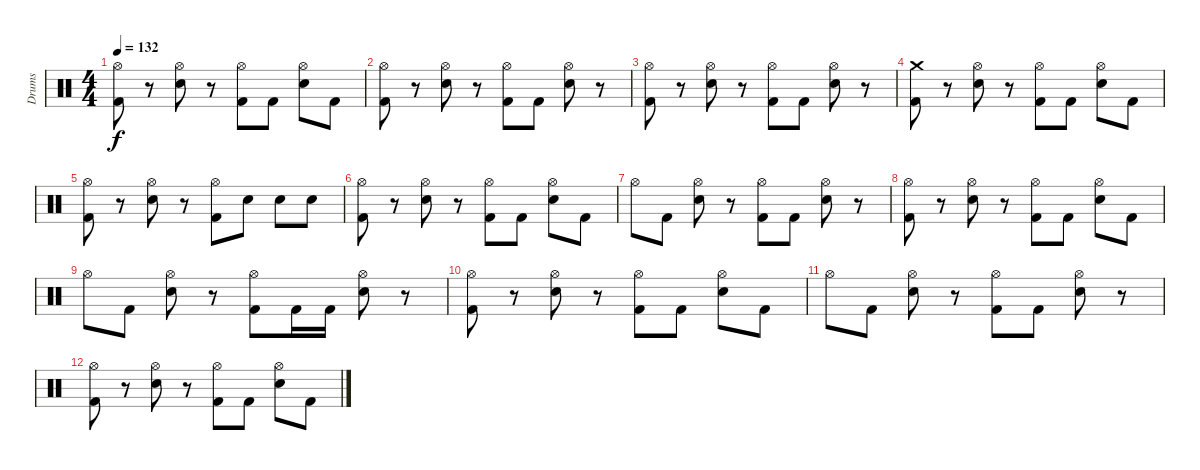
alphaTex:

\track ("Drums" "Drums") {instrument percussion}
\staff {score}
\articulation defaults
\ts (4 4)
\tempo 132
\clef neutral
\ks c
("Kick (hit) 2" "Hi-Hat (open)").8{dy f} r.8 ("Snare (hit) 2" "Hi-Hat (open)").8 r.8 ("Kick (hit) 2" "Hi-Hat (open)").8 "Kick (hit) 2".8 ("Snare (hit) 2" "Hi-Hat (open)").8 "Kick (hit) 2".8 |
("Kick (hit) 2" "Hi-Hat (open)").8 r.8 ("Snare (hit) 2" "Hi-Hat (open)").8 r.8 ("Kick (hit) 2" "Hi-Hat (open)").8 "Kick (hit) 2".8 ("Snare (hit) 2" "Hi-Hat (open)").8 r.8 |
("Kick (hit) 2" "Hi-Hat (open)").8 r.8 ("Snare (hit) 2" "Hi-Hat (open)").8 r.8 ("Kick (hit) 2" "Hi-Hat (open)").8 "Kick (hit) 2".8 ("Snare (hit) 2" "Hi-Hat (open)").8 r.8 |
("Kick (hit) 2" "Crash medium (hit)").8 r.8 ("Snare (hit) 2" "Hi-Hat (open)").8 r.8 ("Kick (hit) 2" "Hi-Hat (open)").8 "Kick (hit) 2".8 ("Snare (hit) 2" "Hi-Hat (open)").8 "Kick (hit) 2".8 |
("Kick (hit) 2" "Hi-Hat (open)").8 r.8 ("Snare (hit) 2" "Hi-Hat (open)").8 r.8 ("Kick (hit) 2" "Hi-Hat (open)").8 "Snare (hit) 2".8 "Snare (hit) 2".8 "Snare (hit) 2".8 |
("Kick (hit) 2" "Hi-Hat (open)").8 r.8 ("Snare (hit) 2" "Hi-Hat (open)").8 r.8 ("Kick (hit) 2" "Hi-Hat (open)").8 "Kick (hit) 2".8 ("Snare (hit) 2" "Hi-Hat (open)").8 "Kick (hit) 2".8 |
"Hi-Hat (open)".8 "Kick (hit) 2".8 ("Snare (hit) 2" "Hi-Hat (open)").8 r.8 ("Kick (hit) 2" "Hi-Hat (open)").8 "Kick (hit) 2".8 ("Snare (hit) 2" "Hi-Hat (open)").8 r.8 |
("Kick (hit) 2" "Hi-Hat (open)").8 r.8 ("Snare (hit) 2" "Hi-Hat (open)").8 r.8 ("Kick (hit) 2" "Hi-Hat (open)").8 "Kick (hit) 2".8 ("Snare (hit) 2" "Hi-Hat (open)").8 "Kick (hit) 2".8 |
"Hi-Hat (open)".8 "Kick (hit) 2".8 ("Snare (hit) 2" "Hi-Hat (open)").8 r.8 ("Kick (hit) 2" "Hi-Hat (open)").8 "Kick (hit) 2".16 "Kick (hit) 2".16 ("Snare (hit) 2" "Hi-Hat (open)").8 r.8 |
("Kick (hit) 2" "Hi-Hat (open)").8 r.8 ("Snare (hit) 2" "Hi-Hat (open)").8 r.8 ("Kick (hit) 2" "Hi-Hat (open)").8 "Kick (hit) 2".8 ("Snare (hit) 2" "Hi-Hat (open)").8 "Kick (hit) 2".8 |
"Hi-Hat (open)".8 "Kick (hit) 2".8 ("Snare (hit) 2" "Hi-Hat (open)").8 r.8 ("Kick (hit) 2" "Hi-Hat (open)").8 "Kick (hit) 2".8 ("Snare (hit) 2" "Hi-Hat (open)").8 r.8 |
("Kick (hit) 2" "Hi-Hat (open)").8 r.8 ("Snare (hit) 2" "Hi-Hat (open)").8 r.8 ("Kick (hit) 2" "Hi-Hat (open)").8 "Kick (hit) 2".8 ("Snare (hit) 2" "Hi-Hat (open)").8 "Kick (hit) 2".8
